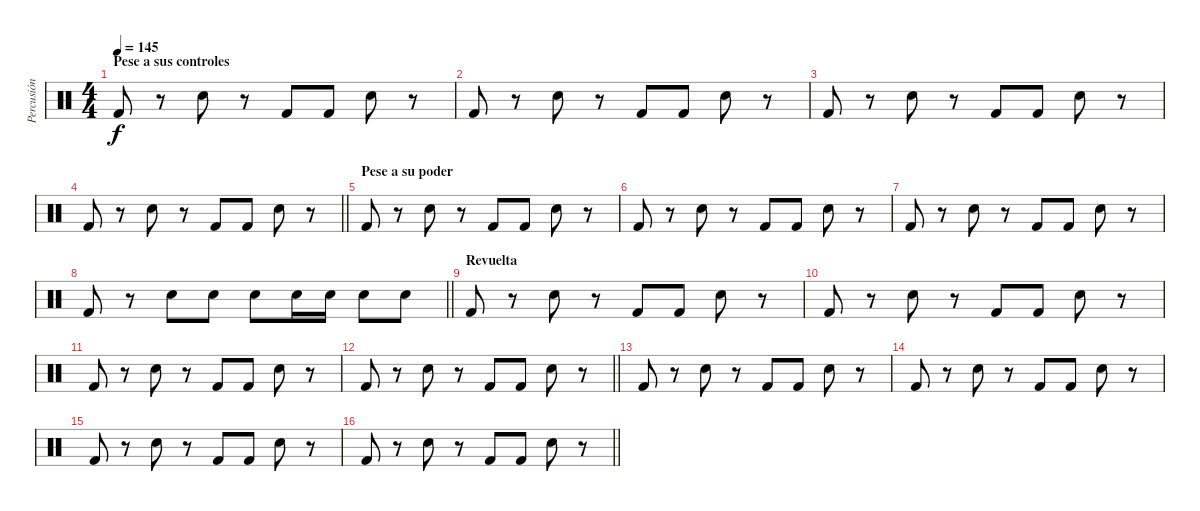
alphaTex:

\track ("Percusión" "Percusión") {instrument percussion}
\staff {score}
\articulation defaults
\ts (4 4)
\section ("" "Pese a sus controles")
\tempo 145
\clef neutral
\ks c "Kick (hit) 2".8{dy f}
r.8 "Snare (hit) 2".8 r.8 "Kick (hit) 2".8 "Kick (hit) 2".8 "Snare (hit) 2".8 r.8 |
"Kick (hit) 2".8 r.8 "Snare (hit) 2".8 r.8 "Kick (hit) 2".8 "Kick (hit) 2".8 "Snare (hit) 2".8 r.8 |
"Kick (hit) 2".8 r.8 "Snare (hit) 2".8 r.8 "Kick (hit) 2".8 "Kick (hit) 2".8 "Snare (hit) 2".8 r.8 |
\barLineRight lightlight "Kick (hit) 2".8
r.8 "Snare (hit) 2".8 r.8 "Kick (hit) 2".8 "Kick (hit) 2".8 "Snare (hit) 2".8 r.8 |
\section ("" "Pese a su poder")
"Kick (hit) 2".8 r.8 "Snare (hit) 2".8 r.8 "Kick (hit) 2".8 "Kick (hit) 2".8 "Snare (hit) 2".8 r.8 |
"Kick (hit) 2".8 r.8 "Snare (hit) 2".8 r.8 "Kick (hit) 2".8 "Kick (hit) 2".8 "Snare (hit) 2".8 r.8 |
"Kick (hit) 2".8 r.8 "Snare (hit) 2".8 r.8 "Kick (hit) 2".8 "Kick (hit) 2".8 "Snare (hit) 2".8 r.8 |
\barLineRight lightlight "Kick (hit) 2".8
r.8 "Snare (hit) 2".8 "Snare (hit) 2".8 "Snare (hit) 2".8 "Snare (hit) 2".16 "Snare (hit) 2".16 "Snare (hit) 2".8 "Snare (hit) 2".8 |
\section ("" "Revuelta")
"Kick (hit) 2".8 r.8 "Snare (hit) 2".8 r.8 "Kick (hit) 2".8 "Kick (hit) 2".8 "Snare (hit) 2".8 r.8 |
"Kick (hit) 2".8 r.8 "Snare (hit) 2".8 r.8 "Kick (hit) 2".8 "Kick (hit) 2".8 "Snare (hit) 2".8 r.8 |
"Kick (hit) 2".8 r.8 "Snare (hit) 2".8 r.8 "Kick (hit) 2".8 "Kick (hit) 2".8 "Snare (hit) 2".8 r.8 |
\barLineRight lightlight "Kick (hit) 2".8
r.8 "Snare (hit) 2".8 r.8 "Kick (hit) 2".8 "Kick (hit) 2".8 "Snare (hit) 2".8 r.8 |
"Kick (hit) 2".8 r.8 "Snare (hit) 2".8 r.8 "Kick (hit) 2".8 "Kick (hit) 2".8 "Snare (hit) 2".8 r.8 |
"Kick (hit) 2".8 r.8 "Snare (hit) 2".8 r.8 "Kick (hit) 2".8 "Kick (hit) 2".8 "Snare (hit) 2".8 r.8 |
"Kick (hit) 2".8 r.8 "Snare (hit) 2".8 r.8 "Kick (hit) 2".8 "Kick (hit) 2".8 "Snare (hit) 2".8 r.8 |
\barLineRight lightlight "Kick (hit) 2".8
r.8 "Snare (hit) 2".8 r.8 "Kick (hit) 2".8 "Kick (hit) 2".8 "Snare (hit) 2".8 r.8
